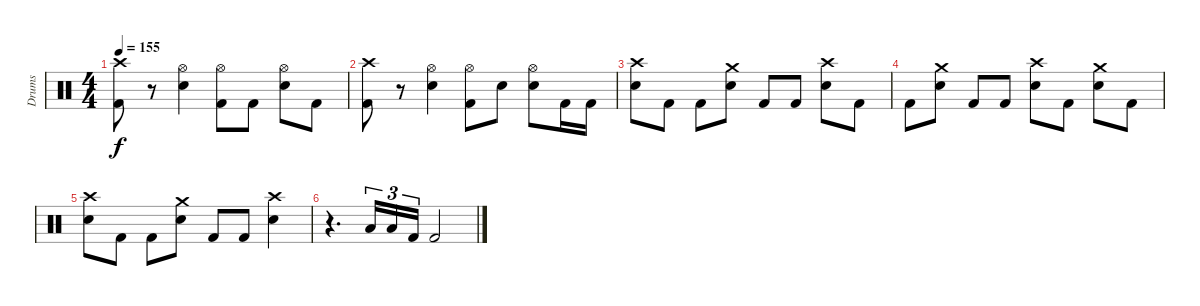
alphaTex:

\track ("Drums" "Drums") {instrument percussion}
\staff {score}
\articulation defaults
\ts (4 4)
\tempo 155
\clef neutral
\ks c
("Crash high (hit)" "Kick (hit) 2").8{dy f} r.8 ("Hi-Hat (open)" "Electric Snare (hit)").4 ("Hi-Hat (open)" "Kick (hit) 2").8 "Kick (hit) 2".8 ("Hi-Hat (open)" "Electric Snare (hit)").8 "Kick (hit) 2".8 |
("Crash high (hit)" "Kick (hit) 2").8 r.8 ("Hi-Hat (open)" "Electric Snare (hit)").4 ("Hi-Hat (open)" "Kick (hit) 2").8 "Electric Snare (hit)".8 ("Hi-Hat (open)" "Electric Snare (hit)").8 "Kick (hit) 2".16 "Kick (hit) 2".16 |
("Crash high (hit)" "Electric Snare (hit)").8 "Kick (hit) 2".8 "Kick (hit) 2".8 ("Crash medium (hit)" "Electric Snare (hit)").8 "Kick (hit) 2".8 "Kick (hit) 2".8 ("Crash high (hit)" "Electric Snare (hit)").8 "Kick (hit) 2".8 |
"Kick (hit) 2".8 ("Crash medium (hit)" "Electric Snare (hit)").8 "Kick (hit) 2".8 "Kick (hit) 2".8 ("Crash high (hit)" "Electric Snare (hit)").8 "Kick (hit) 2".8 ("Crash medium (hit)" "Electric Snare (hit)").8 "Kick (hit) 2".8 |
("Crash high (hit)" "Electric Snare (hit)").8 "Kick (hit) 2".8 "Kick (hit) 2".8 ("Crash medium (hit)" "Electric Snare (hit)").8 "Kick (hit) 2".8 "Kick (hit) 2".8 ("Crash high (hit)" "Electric Snare (hit)").4 |
r.4{d} "Low Floor Tom (hit)".16{tu (3 2)} "Low Floor Tom (hit)".16{tu (3 2)} "Kick (hit) 2".16{tu (3 2)} "Kick (hit) 2".2
